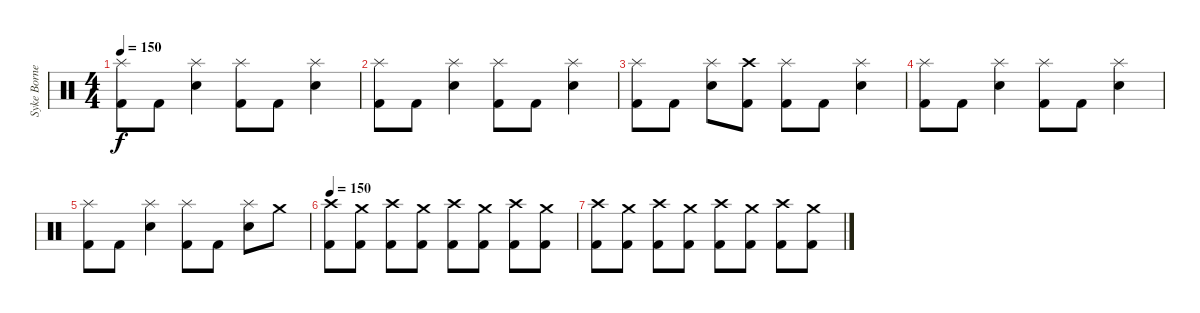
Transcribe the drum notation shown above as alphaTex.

\track ("Syke Bornetto (Drums)" "Syke Borne") {instrument percussion}
\staff {score}
\articulation defaults
\ts (4 4)
\tempo 150
\clef neutral
\ks c
("Splash (hit)" "Kick (hit) 2").8{dy f} "Kick (hit) 2".8 ("Splash (hit)" "Electric Snare (hit)").4 ("Splash (hit)" "Kick (hit) 2").8 "Kick (hit) 2".8 ("Splash (hit)" "Electric Snare (hit)").4 |
("Splash (hit)" "Kick (hit) 2").8 "Kick (hit) 2".8 ("Splash (hit)" "Electric Snare (hit)").4 ("Splash (hit)" "Kick (hit) 2").8 "Kick (hit) 2".8 ("Splash (hit)" "Electric Snare (hit)").4 |
("Splash (hit)" "Kick (hit) 2").8 "Kick (hit) 2".8 ("Splash (hit)" "Electric Snare (hit)").8 ("Crash high (hit)" "Kick (hit) 2").8 ("Splash (hit)" "Kick (hit) 2").8 "Kick (hit) 2".8 ("Splash (hit)" "Electric Snare (hit)").4 |
("Splash (hit)" "Kick (hit) 2").8 "Kick (hit) 2".8 ("Splash (hit)" "Electric Snare (hit)").4 ("Splash (hit)" "Kick (hit) 2").8 "Kick (hit) 2".8 ("Splash (hit)" "Electric Snare (hit)").4 |
("Splash (hit)" "Kick (hit) 2").8 "Kick (hit) 2".8 ("Splash (hit)" "Electric Snare (hit)").4 ("Splash (hit)" "Kick (hit) 2").8 "Kick (hit) 2".8 ("Splash (hit)" "Electric Snare (hit)").8 "Crash medium (hit)".8 |
\tempo 150
("Crash high (hit)" "Kick (hit) 2").8 ("Crash medium (hit)" "Kick (hit) 2").8 ("Crash high (hit)" "Kick (hit) 2").8 ("Crash medium (hit)" "Kick (hit) 2").8 ("Crash high (hit)" "Kick (hit) 2").8 ("Crash medium (hit)" "Kick (hit) 2").8 ("Crash high (hit)" "Kick (hit) 2").8 ("Crash medium (hit)" "Kick (hit) 2").8 |
("Crash high (hit)" "Kick (hit) 2").8 ("Crash medium (hit)" "Kick (hit) 2").8 ("Crash high (hit)" "Kick (hit) 2").8 ("Crash medium (hit)" "Kick (hit) 2").8 ("Crash high (hit)" "Kick (hit) 2").8 ("Crash medium (hit)" "Kick (hit) 2").8 ("Crash high (hit)" "Kick (hit) 2").8 ("Crash medium (hit)" "Kick (hit) 2").8
